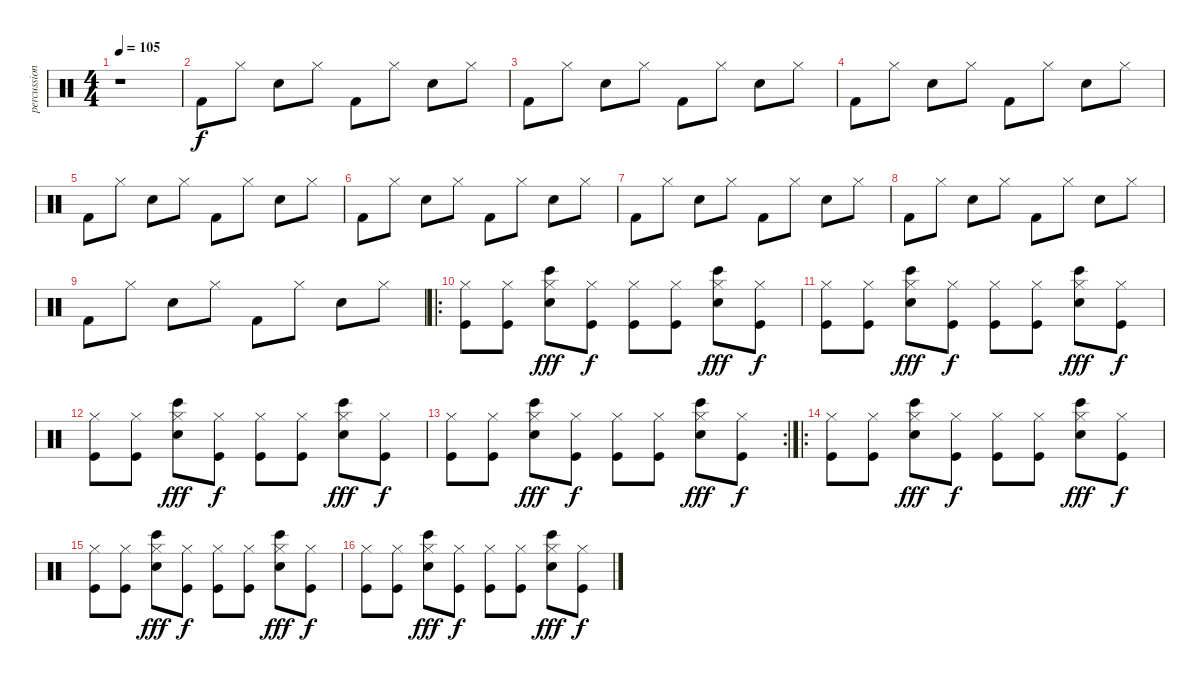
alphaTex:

\track ("percussions" "percussion") {instrument percussion}
\staff {score}
\articulation defaults
\ts (4 4)
\tempo 105
\clef neutral
\ks c
r.1{dy f} |
"Kick (hit) 2".8 "Hi-Hat (closed)".8 "Electric Snare (hit)".8 "Hi-Hat (closed)".8 "Kick (hit) 2".8 "Hi-Hat (closed)".8 "Electric Snare (hit)".8 "Hi-Hat (closed)".8 |
"Kick (hit) 2".8 "Hi-Hat (closed)".8 "Electric Snare (hit)".8 "Hi-Hat (closed)".8 "Kick (hit) 2".8 "Hi-Hat (closed)".8 "Electric Snare (hit)".8 "Hi-Hat (closed)".8 |
"Kick (hit) 2".8 "Hi-Hat (closed)".8 "Electric Snare (hit)".8 "Hi-Hat (closed)".8 "Kick (hit) 2".8 "Hi-Hat (closed)".8 "Electric Snare (hit)".8 "Hi-Hat (closed)".8 |
"Kick (hit) 2".8 "Hi-Hat (closed)".8 "Electric Snare (hit)".8 "Hi-Hat (closed)".8 "Kick (hit) 2".8 "Hi-Hat (closed)".8 "Electric Snare (hit)".8 "Hi-Hat (closed)".8 |
"Kick (hit) 2".8 "Hi-Hat (closed)".8 "Electric Snare (hit)".8 "Hi-Hat (closed)".8 "Kick (hit) 2".8 "Hi-Hat (closed)".8 "Electric Snare (hit)".8 "Hi-Hat (closed)".8 |
"Kick (hit) 2".8 "Hi-Hat (closed)".8 "Electric Snare (hit)".8 "Hi-Hat (closed)".8 "Kick (hit) 2".8 "Hi-Hat (closed)".8 "Electric Snare (hit)".8 "Hi-Hat (closed)".8 |
"Kick (hit) 2".8 "Hi-Hat (closed)".8 "Electric Snare (hit)".8 "Hi-Hat (closed)".8 "Kick (hit) 2".8 "Hi-Hat (closed)".8 "Electric Snare (hit)".8 "Hi-Hat (closed)".8 |
"Kick (hit) 2".8 "Hi-Hat (closed)".8 "Electric Snare (hit)".8 "Hi-Hat (closed)".8 "Kick (hit) 2".8 "Hi-Hat (closed)".8 "Electric Snare (hit)".8 "Hi-Hat (closed)".8 |
\ro
("Hi-Hat (closed)" "Kick (hit)").8 ("Hi-Hat (closed)" "Kick (hit)").8 ("Hi-Hat (closed)" "Bongo High (hit)" "Electric Snare (hit)").8{dy fff} ("Hi-Hat (closed)" "Kick (hit)").8{dy f} ("Hi-Hat (closed)" "Kick (hit)").8 ("Hi-Hat (closed)" "Kick (hit)").8 ("Hi-Hat (closed)" "Bongo High (hit)" "Electric Snare (hit)").8{dy fff} ("Hi-Hat (closed)" "Kick (hit)").8{dy f} |
("Hi-Hat (closed)" "Kick (hit)").8 ("Hi-Hat (closed)" "Kick (hit)").8 ("Hi-Hat (closed)" "Bongo High (hit)" "Electric Snare (hit)").8{dy fff} ("Hi-Hat (closed)" "Kick (hit)").8{dy f} ("Hi-Hat (closed)" "Kick (hit)").8 ("Hi-Hat (closed)" "Kick (hit)").8 ("Hi-Hat (closed)" "Bongo High (hit)" "Electric Snare (hit)").8{dy fff} ("Hi-Hat (closed)" "Kick (hit)").8{dy f} |
("Hi-Hat (closed)" "Kick (hit)").8 ("Hi-Hat (closed)" "Kick (hit)").8 ("Hi-Hat (closed)" "Bongo High (hit)" "Electric Snare (hit)").8{dy fff} ("Hi-Hat (closed)" "Kick (hit)").8{dy f} ("Hi-Hat (closed)" "Kick (hit)").8 ("Hi-Hat (closed)" "Kick (hit)").8 ("Hi-Hat (closed)" "Bongo High (hit)" "Electric Snare (hit)").8{dy fff} ("Hi-Hat (closed)" "Kick (hit)").8{dy f} |
\rc 2
("Hi-Hat (closed)" "Kick (hit)").8 ("Hi-Hat (closed)" "Kick (hit)").8 ("Hi-Hat (closed)" "Bongo High (hit)" "Electric Snare (hit)").8{dy fff} ("Hi-Hat (closed)" "Kick (hit)").8{dy f} ("Hi-Hat (closed)" "Kick (hit)").8 ("Hi-Hat (closed)" "Kick (hit)").8 ("Hi-Hat (closed)" "Bongo High (hit)" "Electric Snare (hit)").8{dy fff} ("Hi-Hat (closed)" "Kick (hit)").8{dy f} |
\ro
("Hi-Hat (closed)" "Kick (hit)").8 ("Hi-Hat (closed)" "Kick (hit)").8 ("Hi-Hat (closed)" "Bongo High (hit)" "Electric Snare (hit)").8{dy fff} ("Hi-Hat (closed)" "Kick (hit)").8{dy f} ("Hi-Hat (closed)" "Kick (hit)").8 ("Hi-Hat (closed)" "Kick (hit)").8 ("Hi-Hat (closed)" "Bongo High (hit)" "Electric Snare (hit)").8{dy fff} ("Hi-Hat (closed)" "Kick (hit)").8{dy f} |
("Hi-Hat (closed)" "Kick (hit)").8 ("Hi-Hat (closed)" "Kick (hit)").8 ("Hi-Hat (closed)" "Bongo High (hit)" "Electric Snare (hit)").8{dy fff} ("Hi-Hat (closed)" "Kick (hit)").8{dy f} ("Hi-Hat (closed)" "Kick (hit)").8 ("Hi-Hat (closed)" "Kick (hit)").8 ("Hi-Hat (closed)" "Bongo High (hit)" "Electric Snare (hit)").8{dy fff} ("Hi-Hat (closed)" "Kick (hit)").8{dy f} |
("Hi-Hat (closed)" "Kick (hit)").8 ("Hi-Hat (closed)" "Kick (hit)").8 ("Hi-Hat (closed)" "Bongo High (hit)" "Electric Snare (hit)").8{dy fff} ("Hi-Hat (closed)" "Kick (hit)").8{dy f} ("Hi-Hat (closed)" "Kick (hit)").8 ("Hi-Hat (closed)" "Kick (hit)").8 ("Hi-Hat (closed)" "Bongo High (hit)" "Electric Snare (hit)").8{dy fff} ("Hi-Hat (closed)" "Kick (hit)").8{dy f}
